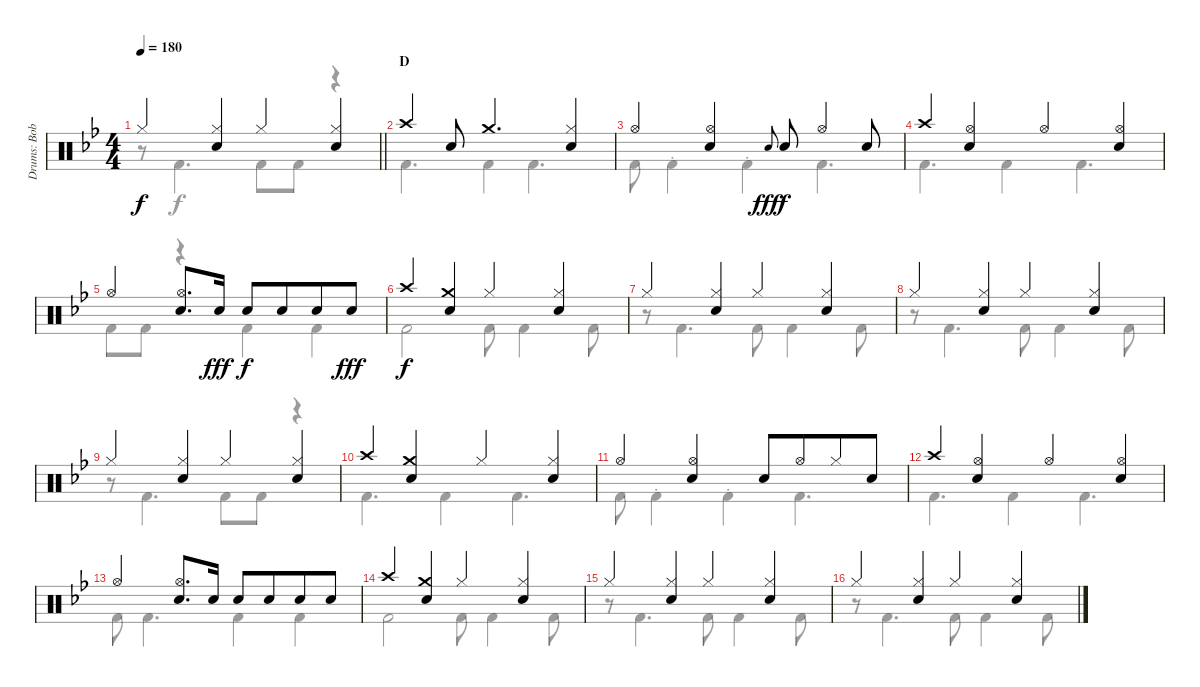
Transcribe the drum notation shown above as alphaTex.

\track ("Drums: Bobby" "Drums: Bob") {instrument percussion}
\staff {score}
\articulation defaults
\voice
\ts (4 4)
\tempo 180
\clef neutral
\barLineRight lightlight
\ks bb "Hi-Hat (closed)".4{dy f}
("Hi-Hat (closed)" "Snare (hit) 2").4 "Hi-Hat (closed)".4 ("Hi-Hat (closed)" "Snare (hit) 2").4 |
\section ("" "D")
"Crash high (hit)".4 "Snare (hit) 2".8 "Crash medium (hit)".4{d} ("Hi-Hat (closed)" "Snare (hit) 2").4 |
"Hi-Hat (open)".4 ("Hi-Hat (open)" "Snare (hit) 2").4 "Electric Snare (hit)".8{gr onbeat dy fff} "Snare (hit) 2".8{dy f} "Hi-Hat (open)".4 "Snare (hit) 2".8 |
"Crash high (hit)".4 ("Hi-Hat (open)" "Snare (hit) 2").4 "Hi-Hat (open)".4 ("Hi-Hat (open)" "Snare (hit) 2").4 |
"Hi-Hat (open)".4 ("Hi-Hat (open)" "Snare (hit) 2").8{d} "Snare (hit) 2".16{dy fff} "Snare (hit) 2".8{dy f} "Snare (hit) 2".8{beam merge} "Snare (hit) 2".8 "Snare (hit) 2".8{dy fff} |
"Crash high (hit)".4{dy f} ("Crash medium (hit)" "Snare (hit) 2").4 "Hi-Hat (closed)".4 ("Hi-Hat (closed)" "Snare (hit) 2").4 |
"Hi-Hat (closed)".4 ("Hi-Hat (closed)" "Snare (hit) 2").4 "Hi-Hat (closed)".4 ("Hi-Hat (closed)" "Snare (hit) 2").4 |
"Hi-Hat (closed)".4 ("Hi-Hat (closed)" "Snare (hit) 2").4 "Hi-Hat (closed)".4 ("Hi-Hat (closed)" "Snare (hit) 2").4 |
"Hi-Hat (closed)".4 ("Hi-Hat (closed)" "Snare (hit) 2").4 "Hi-Hat (closed)".4 ("Hi-Hat (closed)" "Snare (hit) 2").4 |
"Crash high (hit)".4 ("Crash medium (hit)" "Snare (hit) 2").4 "Hi-Hat (closed)".4 ("Hi-Hat (closed)" "Snare (hit) 2").4 |
"Hi-Hat (open)".4 ("Hi-Hat (open)" "Snare (hit) 2").4 "Snare (hit) 2".8 "Hi-Hat (open)".8{beam merge} "Hi-Hat (closed)".8 "Snare (hit) 2".8 |
"Crash high (hit)".4 ("Hi-Hat (open)" "Snare (hit) 2").4 "Hi-Hat (open)".4 ("Hi-Hat (open)" "Snare (hit) 2").4 |
"Hi-Hat (open)".4 ("Hi-Hat (open)" "Snare (hit) 2").8{d} "Snare (hit) 2".16 "Snare (hit) 2".8 "Snare (hit) 2".8{beam merge} "Snare (hit) 2".8 "Snare (hit) 2".8 |
"Crash high (hit)".4 ("Crash medium (hit)" "Snare (hit) 2").4 "Hi-Hat (closed)".4 ("Hi-Hat (closed)" "Snare (hit) 2").4 |
"Hi-Hat (closed)".4 ("Hi-Hat (closed)" "Snare (hit) 2").4 "Hi-Hat (closed)".4 ("Hi-Hat (closed)" "Snare (hit) 2").4 |
"Hi-Hat (closed)".4 ("Hi-Hat (closed)" "Snare (hit) 2").4 "Hi-Hat (closed)".4 ("Hi-Hat (closed)" "Snare (hit) 2").4
\voice
\clef neutral
\ottava regular
\simile none
\barLineRight lightlight
\ks bb
r.8{dy f} "Kick (hit) 2".4{d} "Kick (hit) 2".8 "Kick (hit) 2".8 r.4 |
"Kick (hit) 2".4{d} "Kick (hit) 2".4 "Kick (hit) 2".4{d} |
"Kick (hit) 2".8 "Kick (hit) 2"{st}.4 "Kick (hit) 2"{st}.4 "Kick (hit) 2".4{d} |
"Kick (hit) 2".4{d} "Kick (hit) 2".4 "Kick (hit) 2".4{d} |
"Kick (hit) 2".8 "Kick (hit) 2".8 r.4 "Kick (hit) 2".4 "Kick (hit) 2".4 |
"Kick (hit) 2".2 "Kick (hit) 2".8 "Kick (hit) 2".4 "Kick (hit) 2".8 |
r.8 "Kick (hit) 2".4{d} "Kick (hit) 2".8 "Kick (hit) 2".4 "Kick (hit) 2".8 |
r.8 "Kick (hit) 2".4{d} "Kick (hit) 2".8 "Kick (hit) 2".4 "Kick (hit) 2".8 |
r.8 "Kick (hit) 2".4{d} "Kick (hit) 2".8 "Kick (hit) 2".8 r.4 |
"Kick (hit) 2".4{d} "Kick (hit) 2".4 "Kick (hit) 2".4{d} |
"Kick (hit) 2".8 "Kick (hit) 2"{st}.4 "Kick (hit) 2"{st}.4 "Kick (hit) 2".4{d} |
"Kick (hit) 2".4{d} "Kick (hit) 2".4 "Kick (hit) 2".4{d} |
"Kick (hit) 2".8 "Kick (hit) 2".4{d} "Kick (hit) 2".4 "Kick (hit) 2".4 |
"Kick (hit) 2".2 "Kick (hit) 2".8 "Kick (hit) 2".4 "Kick (hit) 2".8 |
r.8 "Kick (hit) 2".4{d} "Kick (hit) 2".8 "Kick (hit) 2".4 "Kick (hit) 2".8 |
r.8 "Kick (hit) 2".4{d} "Kick (hit) 2".8 "Kick (hit) 2".4 "Kick (hit) 2".8
